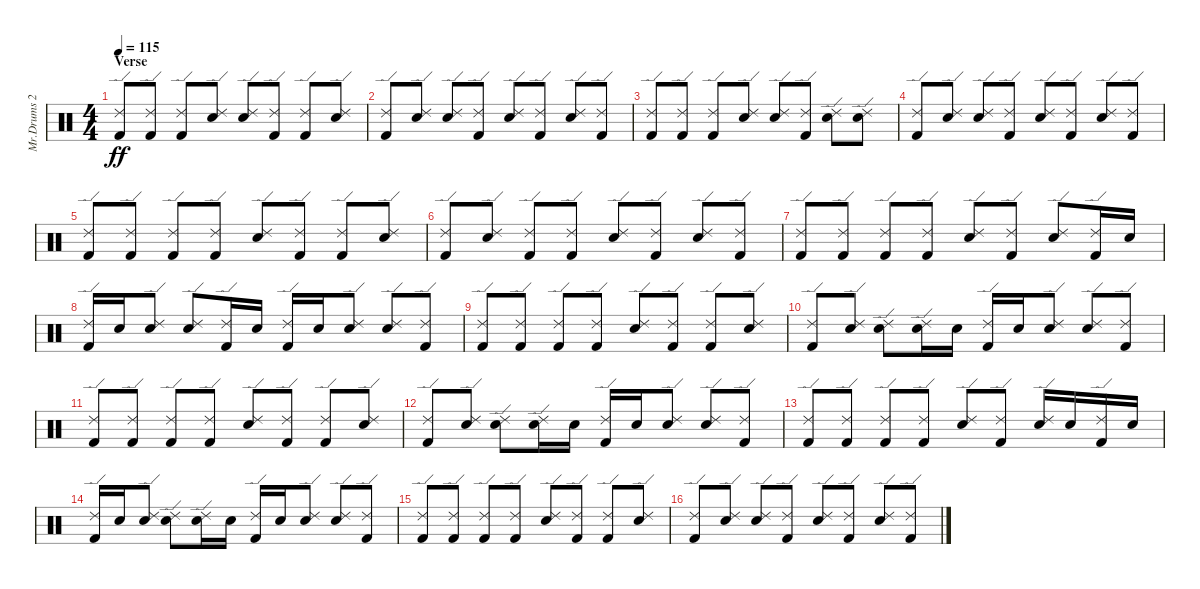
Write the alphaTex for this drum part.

\track ("Mr.Drums 2" "Mr.Drums 2") {instrument percussion}
\staff {score}
\articulation defaults
\ts (4 4)
\section ("" "Verse")
\tempo 115
\clef neutral
\ks c
("Ride (edge) 2" "Kick (hit) 2").8{dy ff} ("Ride (edge) 2" "Kick (hit) 2").8 ("Ride (edge) 2" "Kick (hit) 2").8 ("Ride (edge) 2" "Electric Snare (hit)").8 ("Ride (edge) 2" "Electric Snare (hit)").8 ("Ride (edge) 2" "Kick (hit) 2").8 ("Ride (edge) 2" "Kick (hit) 2").8 ("Ride (edge) 2" "Electric Snare (hit)").8 |
("Ride (edge) 2" "Kick (hit) 2").8 ("Ride (edge) 2" "Electric Snare (hit)").8 ("Ride (edge) 2" "Electric Snare (hit)").8 ("Ride (edge) 2" "Kick (hit) 2").8 ("Ride (edge) 2" "Electric Snare (hit)").8 ("Ride (edge) 2" "Kick (hit) 2").8 ("Ride (edge) 2" "Electric Snare (hit)").8 ("Ride (edge) 2" "Kick (hit) 2").8 |
("Ride (edge) 2" "Kick (hit) 2").8 ("Ride (edge) 2" "Kick (hit) 2").8 ("Ride (edge) 2" "Kick (hit) 2").8 ("Ride (edge) 2" "Electric Snare (hit)").8 ("Ride (edge) 2" "Electric Snare (hit)").8 ("Ride (edge) 2" "Kick (hit) 2").8 ("Ride (edge) 2" "Electric Snare (hit)").8 ("Ride (edge) 2" "Electric Snare (hit)").8 |
("Ride (edge) 2" "Kick (hit) 2").8 ("Ride (edge) 2" "Electric Snare (hit)").8 ("Ride (edge) 2" "Electric Snare (hit)").8 ("Ride (edge) 2" "Kick (hit) 2").8 ("Ride (edge) 2" "Electric Snare (hit)").8 ("Ride (edge) 2" "Kick (hit) 2").8 ("Ride (edge) 2" "Electric Snare (hit)").8 ("Ride (edge) 2" "Kick (hit) 2").8 |
("Ride (edge) 2" "Kick (hit) 2").8 ("Ride (edge) 2" "Kick (hit) 2").8 ("Ride (edge) 2" "Kick (hit) 2").8 ("Ride (edge) 2" "Kick (hit) 2").8 ("Ride (edge) 2" "Electric Snare (hit)").8 ("Ride (edge) 2" "Kick (hit) 2").8 ("Ride (edge) 2" "Kick (hit) 2").8 ("Ride (edge) 2" "Electric Snare (hit)").8 |
("Ride (edge) 2" "Kick (hit) 2").8 ("Ride (edge) 2" "Electric Snare (hit)").8 ("Ride (edge) 2" "Kick (hit) 2").8 ("Ride (edge) 2" "Kick (hit) 2").8 ("Ride (edge) 2" "Electric Snare (hit)").8 ("Ride (edge) 2" "Kick (hit) 2").8 ("Ride (edge) 2" "Electric Snare (hit)").8 ("Ride (edge) 2" "Kick (hit) 2").8 |
("Ride (edge) 2" "Kick (hit) 2").8 ("Ride (edge) 2" "Kick (hit) 2").8 ("Ride (edge) 2" "Kick (hit) 2").8 ("Ride (edge) 2" "Kick (hit) 2").8 ("Ride (edge) 2" "Electric Snare (hit)").8 ("Ride (edge) 2" "Kick (hit) 2").8 ("Ride (edge) 2" "Electric Snare (hit)").8 ("Ride (edge) 2" "Kick (hit) 2").16 "Electric Snare (hit)".16 |
("Ride (edge) 2" "Kick (hit) 2").16 "Electric Snare (hit)".16 ("Ride (edge) 2" "Electric Snare (hit)").8 ("Ride (edge) 2" "Electric Snare (hit)").8 ("Ride (edge) 2" "Kick (hit) 2").16 "Electric Snare (hit)".16 ("Ride (edge) 2" "Kick (hit) 2").16 "Electric Snare (hit)".16 ("Ride (edge) 2" "Electric Snare (hit)").8 ("Ride (edge) 2" "Electric Snare (hit)").8 ("Ride (edge) 2" "Kick (hit) 2").8 |
("Ride (edge) 2" "Kick (hit) 2").8 ("Ride (edge) 2" "Kick (hit) 2").8 ("Ride (edge) 2" "Kick (hit) 2").8 ("Ride (edge) 2" "Kick (hit) 2").8 ("Ride (edge) 2" "Electric Snare (hit)").8 ("Ride (edge) 2" "Kick (hit) 2").8 ("Ride (edge) 2" "Kick (hit) 2").8 ("Ride (edge) 2" "Electric Snare (hit)").8 |
("Ride (edge) 2" "Kick (hit) 2").8 ("Ride (edge) 2" "Electric Snare (hit)").8 ("Ride (edge) 2" "Electric Snare (hit)").8 ("Ride (edge) 2" "Electric Snare (hit)").16 "Electric Snare (hit)".16 ("Ride (edge) 2" "Kick (hit) 2").16 "Electric Snare (hit)".16 ("Ride (edge) 2" "Electric Snare (hit)").8 ("Ride (edge) 2" "Electric Snare (hit)").8 ("Ride (edge) 2" "Kick (hit) 2").8 |
("Ride (edge) 2" "Kick (hit) 2").8 ("Ride (edge) 2" "Kick (hit) 2").8 ("Ride (edge) 2" "Kick (hit) 2").8 ("Ride (edge) 2" "Kick (hit) 2").8 ("Ride (edge) 2" "Electric Snare (hit)").8 ("Ride (edge) 2" "Kick (hit) 2").8 ("Ride (edge) 2" "Kick (hit) 2").8 ("Ride (edge) 2" "Electric Snare (hit)").8 |
("Ride (edge) 2" "Kick (hit) 2").8 ("Ride (edge) 2" "Electric Snare (hit)").8 ("Ride (edge) 2" "Electric Snare (hit)").8 ("Ride (edge) 2" "Electric Snare (hit)").16 "Electric Snare (hit)".16 ("Ride (edge) 2" "Kick (hit) 2").16 "Electric Snare (hit)".16 ("Ride (edge) 2" "Electric Snare (hit)").8 ("Ride (edge) 2" "Electric Snare (hit)").8 ("Ride (edge) 2" "Kick (hit) 2").8 |
("Ride (edge) 2" "Kick (hit) 2").8 ("Ride (edge) 2" "Kick (hit) 2").8 ("Ride (edge) 2" "Kick (hit) 2").8 ("Ride (edge) 2" "Kick (hit) 2").8 ("Ride (edge) 2" "Electric Snare (hit)").8 ("Ride (edge) 2" "Kick (hit) 2").8 ("Ride (edge) 2" "Electric Snare (hit)").16 "Electric Snare (hit)".16 ("Ride (edge) 2" "Kick (hit) 2").16 "Electric Snare (hit)".16 |
("Ride (edge) 2" "Kick (hit) 2").16 "Electric Snare (hit)".16 ("Ride (edge) 2" "Electric Snare (hit)").8 ("Ride (edge) 2" "Electric Snare (hit)").8 ("Ride (edge) 2" "Electric Snare (hit)").16 "Electric Snare (hit)".16 ("Ride (edge) 2" "Kick (hit) 2").16 "Electric Snare (hit)".16 ("Ride (edge) 2" "Electric Snare (hit)").8 ("Ride (edge) 2" "Electric Snare (hit)").8 ("Ride (edge) 2" "Kick (hit) 2").8 |
("Ride (edge) 2" "Kick (hit) 2").8 ("Ride (edge) 2" "Kick (hit) 2").8 ("Ride (edge) 2" "Kick (hit) 2").8 ("Ride (edge) 2" "Kick (hit) 2").8 ("Ride (edge) 2" "Electric Snare (hit)").8 ("Ride (edge) 2" "Kick (hit) 2").8 ("Ride (edge) 2" "Kick (hit) 2").8 ("Ride (edge) 2" "Electric Snare (hit)").8 |
("Ride (edge) 2" "Kick (hit) 2").8 ("Ride (edge) 2" "Electric Snare (hit)").8 ("Ride (edge) 2" "Electric Snare (hit)").8 ("Ride (edge) 2" "Kick (hit) 2").8 ("Ride (edge) 2" "Electric Snare (hit)").8 ("Ride (edge) 2" "Kick (hit) 2").8 ("Ride (edge) 2" "Electric Snare (hit)").8 ("Ride (edge) 2" "Kick (hit) 2").8
